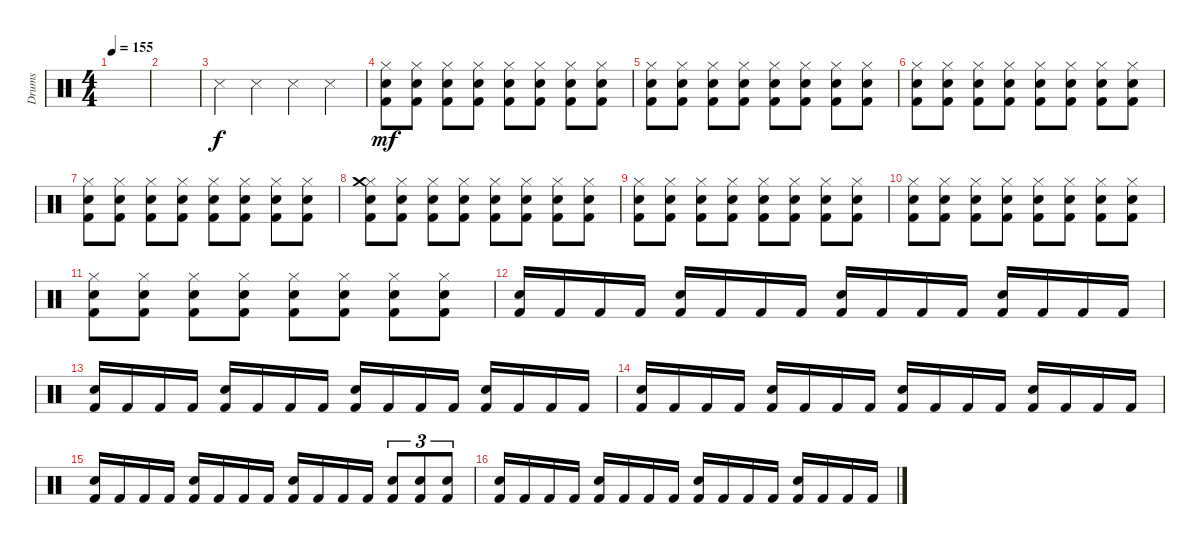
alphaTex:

\track ("Drums" "Drums") {instrument percussion}
\staff {score}
\articulation defaults
\ts (4 4)
\tempo 155
\clef neutral
\ks c
|
|
"Snare (side stick) 3".4 "Snare (side stick) 3".4 "Snare (side stick) 3".4 "Snare (side stick) 3".4 |
("Kick (hit) 2" "Snare (hit) 2" "Hi-Hat (closed)").8{dy mf} ("Kick (hit) 2" "Snare (hit) 2" "Hi-Hat (closed)").8 ("Kick (hit) 2" "Snare (hit) 2" "Hi-Hat (closed)").8 ("Kick (hit) 2" "Snare (hit) 2" "Hi-Hat (closed)").8 ("Kick (hit) 2" "Snare (hit) 2" "Hi-Hat (closed)").8 ("Kick (hit) 2" "Snare (hit) 2" "Hi-Hat (closed)").8 ("Kick (hit) 2" "Snare (hit) 2" "Hi-Hat (closed)").8 ("Kick (hit) 2" "Snare (hit) 2" "Hi-Hat (closed)").8 |
("Kick (hit) 2" "Snare (hit) 2" "Hi-Hat (closed)").8 ("Kick (hit) 2" "Snare (hit) 2" "Hi-Hat (closed)").8 ("Kick (hit) 2" "Snare (hit) 2" "Hi-Hat (closed)").8 ("Kick (hit) 2" "Snare (hit) 2" "Hi-Hat (closed)").8 ("Kick (hit) 2" "Snare (hit) 2" "Hi-Hat (closed)").8 ("Kick (hit) 2" "Snare (hit) 2" "Hi-Hat (closed)").8 ("Kick (hit) 2" "Snare (hit) 2" "Hi-Hat (closed)").8 ("Kick (hit) 2" "Snare (hit) 2" "Hi-Hat (closed)").8 |
("Kick (hit) 2" "Snare (hit) 2" "Hi-Hat (closed)").8 ("Kick (hit) 2" "Snare (hit) 2" "Hi-Hat (closed)").8 ("Kick (hit) 2" "Snare (hit) 2" "Hi-Hat (closed)").8 ("Kick (hit) 2" "Snare (hit) 2" "Hi-Hat (closed)").8 ("Kick (hit) 2" "Snare (hit) 2" "Hi-Hat (closed)").8 ("Kick (hit) 2" "Snare (hit) 2" "Hi-Hat (closed)").8 ("Kick (hit) 2" "Snare (hit) 2" "Hi-Hat (closed)").8 ("Kick (hit) 2" "Snare (hit) 2" "Hi-Hat (closed)").8 |
("Kick (hit) 2" "Snare (hit) 2" "Hi-Hat (closed)").8 ("Kick (hit) 2" "Snare (hit) 2" "Hi-Hat (closed)").8 ("Kick (hit) 2" "Snare (hit) 2" "Hi-Hat (closed)").8 ("Kick (hit) 2" "Snare (hit) 2" "Hi-Hat (closed)").8 ("Kick (hit) 2" "Snare (hit) 2" "Hi-Hat (closed)").8 ("Kick (hit) 2" "Snare (hit) 2" "Hi-Hat (closed)").8 ("Kick (hit) 2" "Snare (hit) 2" "Hi-Hat (closed)").8 ("Kick (hit) 2" "Snare (hit) 2" "Hi-Hat (closed)").8 |
("Kick (hit) 2" "Snare (hit) 2" "Hi-Hat (closed)" "Crash medium (hit)").8 ("Kick (hit) 2" "Snare (hit) 2" "Hi-Hat (closed)").8 ("Kick (hit) 2" "Snare (hit) 2" "Hi-Hat (closed)").8 ("Kick (hit) 2" "Snare (hit) 2" "Hi-Hat (closed)").8 ("Kick (hit) 2" "Snare (hit) 2" "Hi-Hat (closed)").8 ("Kick (hit) 2" "Snare (hit) 2" "Hi-Hat (closed)").8 ("Kick (hit) 2" "Snare (hit) 2" "Hi-Hat (closed)").8 ("Kick (hit) 2" "Snare (hit) 2" "Hi-Hat (closed)").8 |
("Kick (hit) 2" "Snare (hit) 2" "Hi-Hat (closed)").8 ("Kick (hit) 2" "Snare (hit) 2" "Hi-Hat (closed)").8 ("Kick (hit) 2" "Snare (hit) 2" "Hi-Hat (closed)").8 ("Kick (hit) 2" "Snare (hit) 2" "Hi-Hat (closed)").8 ("Kick (hit) 2" "Snare (hit) 2" "Hi-Hat (closed)").8 ("Kick (hit) 2" "Snare (hit) 2" "Hi-Hat (closed)").8 ("Kick (hit) 2" "Snare (hit) 2" "Hi-Hat (closed)").8 ("Kick (hit) 2" "Snare (hit) 2" "Hi-Hat (closed)").8 |
("Kick (hit) 2" "Snare (hit) 2" "Hi-Hat (closed)").8 ("Kick (hit) 2" "Snare (hit) 2" "Hi-Hat (closed)").8 ("Kick (hit) 2" "Snare (hit) 2" "Hi-Hat (closed)").8 ("Kick (hit) 2" "Snare (hit) 2" "Hi-Hat (closed)").8 ("Kick (hit) 2" "Snare (hit) 2" "Hi-Hat (closed)").8 ("Kick (hit) 2" "Snare (hit) 2" "Hi-Hat (closed)").8 ("Kick (hit) 2" "Snare (hit) 2" "Hi-Hat (closed)").8 ("Kick (hit) 2" "Snare (hit) 2" "Hi-Hat (closed)").8 |
("Kick (hit) 2" "Snare (hit) 2" "Hi-Hat (closed)").8 ("Kick (hit) 2" "Snare (hit) 2" "Hi-Hat (closed)").8 ("Kick (hit) 2" "Snare (hit) 2" "Hi-Hat (closed)").8 ("Kick (hit) 2" "Snare (hit) 2" "Hi-Hat (closed)").8 ("Kick (hit) 2" "Snare (hit) 2" "Hi-Hat (closed)").8 ("Kick (hit) 2" "Snare (hit) 2" "Hi-Hat (closed)").8 ("Kick (hit) 2" "Snare (hit) 2" "Hi-Hat (closed)").8 ("Kick (hit) 2" "Snare (hit) 2" "Hi-Hat (closed)").8 |
("Kick (hit) 2" "Snare (hit) 2").16 "Kick (hit) 2".16 "Kick (hit) 2".16 "Kick (hit) 2".16 ("Kick (hit) 2" "Snare (hit) 2").16 "Kick (hit) 2".16 "Kick (hit) 2".16 "Kick (hit) 2".16 ("Kick (hit) 2" "Snare (hit) 2").16 "Kick (hit) 2".16 "Kick (hit) 2".16 "Kick (hit) 2".16 ("Kick (hit) 2" "Snare (hit) 2").16 "Kick (hit) 2".16 "Kick (hit) 2".16 "Kick (hit) 2".16 |
("Kick (hit) 2" "Snare (hit) 2").16 "Kick (hit) 2".16 "Kick (hit) 2".16 "Kick (hit) 2".16 ("Kick (hit) 2" "Snare (hit) 2").16 "Kick (hit) 2".16 "Kick (hit) 2".16 "Kick (hit) 2".16 ("Kick (hit) 2" "Snare (hit) 2").16 "Kick (hit) 2".16 "Kick (hit) 2".16 "Kick (hit) 2".16 ("Kick (hit) 2" "Snare (hit) 2").16 "Kick (hit) 2".16 "Kick (hit) 2".16 "Kick (hit) 2".16 |
("Kick (hit) 2" "Snare (hit) 2").16 "Kick (hit) 2".16 "Kick (hit) 2".16 "Kick (hit) 2".16 ("Kick (hit) 2" "Snare (hit) 2").16 "Kick (hit) 2".16 "Kick (hit) 2".16 "Kick (hit) 2".16 ("Kick (hit) 2" "Snare (hit) 2").16 "Kick (hit) 2".16 "Kick (hit) 2".16 "Kick (hit) 2".16 ("Kick (hit) 2" "Snare (hit) 2").16 "Kick (hit) 2".16 "Kick (hit) 2".16 "Kick (hit) 2".16 |
("Kick (hit) 2" "Snare (hit) 2").16 "Kick (hit) 2".16 "Kick (hit) 2".16 "Kick (hit) 2".16 ("Kick (hit) 2" "Snare (hit) 2").16 "Kick (hit) 2".16 "Kick (hit) 2".16 "Kick (hit) 2".16 ("Kick (hit) 2" "Snare (hit) 2").16 "Kick (hit) 2".16 "Kick (hit) 2".16 "Kick (hit) 2".16 ("Kick (hit) 2" "Snare (hit) 2").8{tu (3 2)} ("Kick (hit) 2" "Snare (hit) 2").8{tu (3 2)} ("Kick (hit) 2" "Snare (hit) 2").8{tu (3 2)} |
("Kick (hit) 2" "Snare (hit) 2").16 "Kick (hit) 2".16 "Kick (hit) 2".16 "Kick (hit) 2".16 ("Kick (hit) 2" "Snare (hit) 2").16 "Kick (hit) 2".16 "Kick (hit) 2".16 "Kick (hit) 2".16 ("Kick (hit) 2" "Snare (hit) 2").16 "Kick (hit) 2".16 "Kick (hit) 2".16 "Kick (hit) 2".16 ("Kick (hit) 2" "Snare (hit) 2").16 "Kick (hit) 2".16 "Kick (hit) 2".16 "Kick (hit) 2".16
